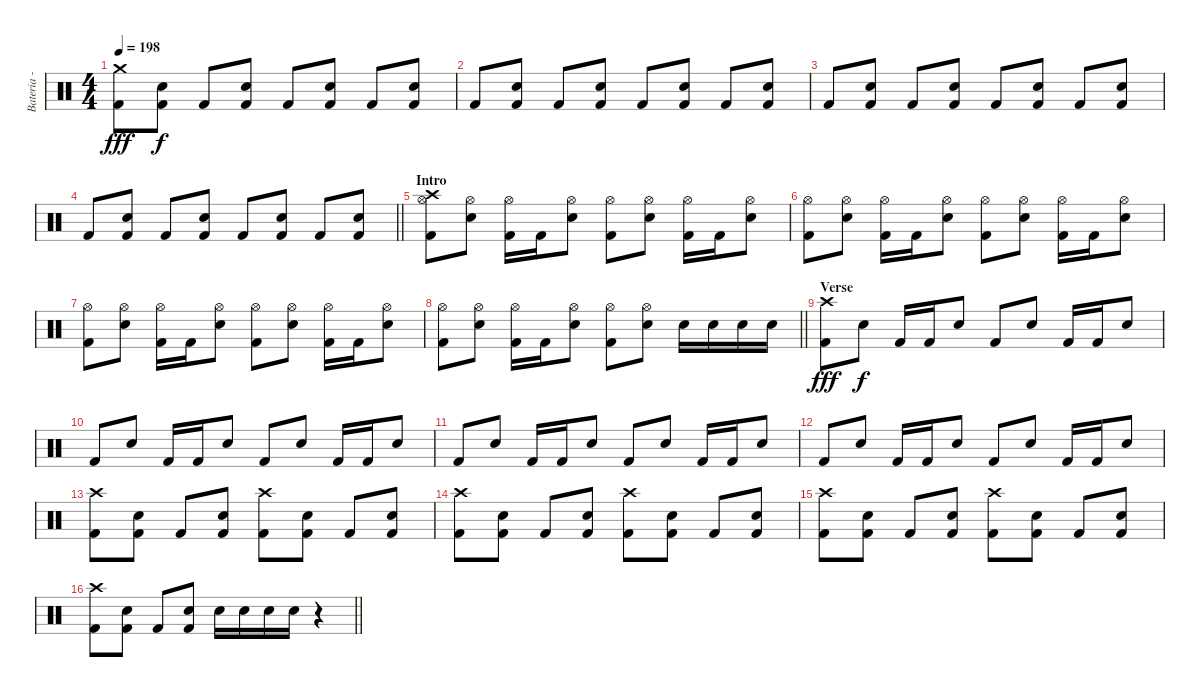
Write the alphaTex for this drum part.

\track ("Bateria - Larzon" "Bateria - ") {instrument percussion}
\staff {score}
\articulation defaults
\ts (4 4)
\tempo 198
\clef neutral
\ks c
("Crash medium (hit)" "Kick (hit) 2").8{dy fff} ("Snare (hit) 2" "Kick (hit) 2").8{dy f} "Kick (hit) 2".8 ("Snare (hit) 2" "Kick (hit) 2").8 "Kick (hit) 2".8 ("Snare (hit) 2" "Kick (hit) 2").8 "Kick (hit) 2".8 ("Snare (hit) 2" "Kick (hit) 2").8 |
"Kick (hit) 2".8 ("Snare (hit) 2" "Kick (hit) 2").8 "Kick (hit) 2".8 ("Snare (hit) 2" "Kick (hit) 2").8 "Kick (hit) 2".8 ("Snare (hit) 2" "Kick (hit) 2").8 "Kick (hit) 2".8 ("Snare (hit) 2" "Kick (hit) 2").8 |
"Kick (hit) 2".8 ("Snare (hit) 2" "Kick (hit) 2").8 "Kick (hit) 2".8 ("Snare (hit) 2" "Kick (hit) 2").8 "Kick (hit) 2".8 ("Snare (hit) 2" "Kick (hit) 2").8 "Kick (hit) 2".8 ("Snare (hit) 2" "Kick (hit) 2").8 |
\barLineRight lightlight "Kick (hit) 2".8
("Snare (hit) 2" "Kick (hit) 2").8 "Kick (hit) 2".8 ("Snare (hit) 2" "Kick (hit) 2").8 "Kick (hit) 2".8 ("Snare (hit) 2" "Kick (hit) 2").8 "Kick (hit) 2".8 ("Snare (hit) 2" "Kick (hit) 2").8 |
\section ("" "Intro")
("Crash high (hit)" "Hi-Hat (open)" "Kick (hit) 2").8 ("Hi-Hat (open)" "Snare (hit) 2").8 ("Hi-Hat (open)" "Kick (hit) 2").16 "Kick (hit) 2".16 ("Hi-Hat (open)" "Snare (hit) 2").8 ("Hi-Hat (open)" "Kick (hit) 2").8 ("Hi-Hat (open)" "Snare (hit) 2").8 ("Hi-Hat (open)" "Kick (hit) 2").16 "Kick (hit) 2".16 ("Hi-Hat (open)" "Snare (hit) 2").8 |
("Hi-Hat (open)" "Kick (hit) 2").8 ("Hi-Hat (open)" "Snare (hit) 2").8 ("Hi-Hat (open)" "Kick (hit) 2").16 "Kick (hit) 2".16 ("Hi-Hat (open)" "Snare (hit) 2").8 ("Hi-Hat (open)" "Kick (hit) 2").8 ("Hi-Hat (open)" "Snare (hit) 2").8 ("Hi-Hat (open)" "Kick (hit) 2").16 "Kick (hit) 2".16 ("Hi-Hat (open)" "Snare (hit) 2").8 |
("Hi-Hat (open)" "Kick (hit) 2").8 ("Hi-Hat (open)" "Snare (hit) 2").8 ("Hi-Hat (open)" "Kick (hit) 2").16 "Kick (hit) 2".16 ("Hi-Hat (open)" "Snare (hit) 2").8 ("Hi-Hat (open)" "Kick (hit) 2").8 ("Hi-Hat (open)" "Snare (hit) 2").8 ("Hi-Hat (open)" "Kick (hit) 2").16 "Kick (hit) 2".16 ("Hi-Hat (open)" "Snare (hit) 2").8 |
\barLineRight lightlight
("Hi-Hat (open)" "Kick (hit) 2").8 ("Hi-Hat (open)" "Snare (hit) 2").8 ("Hi-Hat (open)" "Kick (hit) 2").16 "Kick (hit) 2".16 ("Hi-Hat (open)" "Snare (hit) 2").8 ("Hi-Hat (open)" "Kick (hit) 2").8 ("Hi-Hat (open)" "Snare (hit) 2").8 "Snare (hit) 2".16 "Snare (hit) 2".16 "Snare (hit) 2".16 "Snare (hit) 2".16 |
\section ("" "Verse")
("Crash high (hit)" "Kick (hit) 2").8{dy fff} "Snare (hit) 2".8{dy f} "Kick (hit) 2".16 "Kick (hit) 2".16 "Snare (hit) 2".8 "Kick (hit) 2".8 "Snare (hit) 2".8 "Kick (hit) 2".16 "Kick (hit) 2".16 "Snare (hit) 2".8 |
"Kick (hit) 2".8 "Snare (hit) 2".8 "Kick (hit) 2".16 "Kick (hit) 2".16 "Snare (hit) 2".8 "Kick (hit) 2".8 "Snare (hit) 2".8 "Kick (hit) 2".16 "Kick (hit) 2".16 "Snare (hit) 2".8 |
"Kick (hit) 2".8 "Snare (hit) 2".8 "Kick (hit) 2".16 "Kick (hit) 2".16 "Snare (hit) 2".8 "Kick (hit) 2".8 "Snare (hit) 2".8 "Kick (hit) 2".16 "Kick (hit) 2".16 "Snare (hit) 2".8 |
"Kick (hit) 2".8 "Snare (hit) 2".8 "Kick (hit) 2".16 "Kick (hit) 2".16 "Snare (hit) 2".8 "Kick (hit) 2".8 "Snare (hit) 2".8 "Kick (hit) 2".16 "Kick (hit) 2".16 "Snare (hit) 2".8 |
("Crash high (hit)" "Kick (hit) 2").8 ("Snare (hit) 2" "Kick (hit) 2").8 "Kick (hit) 2".8 ("Snare (hit) 2" "Kick (hit) 2").8 ("Crash high (hit)" "Kick (hit) 2").8 ("Snare (hit) 2" "Kick (hit) 2").8 "Kick (hit) 2".8 ("Snare (hit) 2" "Kick (hit) 2").8 |
("Crash high (hit)" "Kick (hit) 2").8 ("Snare (hit) 2" "Kick (hit) 2").8 "Kick (hit) 2".8 ("Snare (hit) 2" "Kick (hit) 2").8 ("Crash high (hit)" "Kick (hit) 2").8 ("Snare (hit) 2" "Kick (hit) 2").8 "Kick (hit) 2".8 ("Snare (hit) 2" "Kick (hit) 2").8 |
("Crash high (hit)" "Kick (hit) 2").8 ("Snare (hit) 2" "Kick (hit) 2").8 "Kick (hit) 2".8 ("Snare (hit) 2" "Kick (hit) 2").8 ("Crash high (hit)" "Kick (hit) 2").8 ("Snare (hit) 2" "Kick (hit) 2").8 "Kick (hit) 2".8 ("Snare (hit) 2" "Kick (hit) 2").8 |
\barLineRight lightlight
("Crash high (hit)" "Kick (hit) 2").8 ("Snare (hit) 2" "Kick (hit) 2").8 "Kick (hit) 2".8 ("Snare (hit) 2" "Kick (hit) 2").8 "Snare (hit) 2".16 "Snare (hit) 2".16 "Snare (hit) 2".16 "Snare (hit) 2".16 r.4
